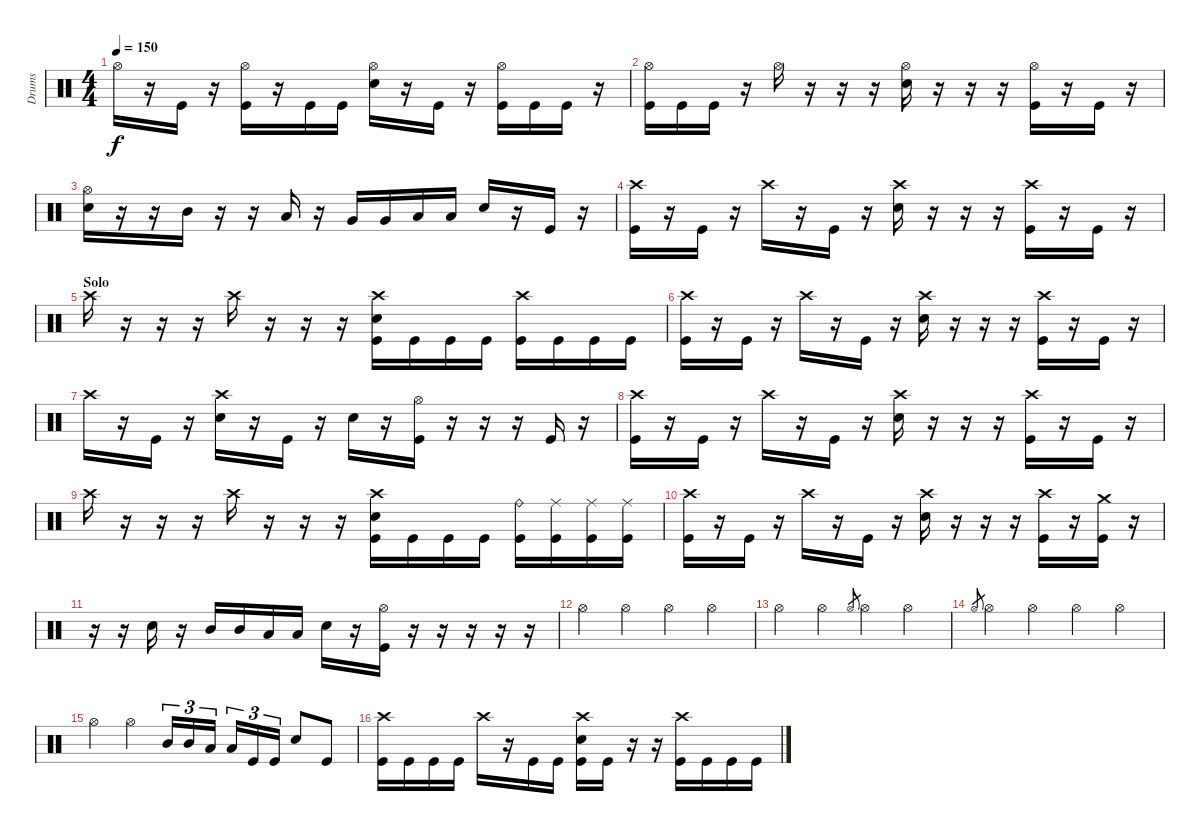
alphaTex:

\track ("Drums" "Drums") {instrument percussion}
\staff {score}
\articulation defaults
\ts (4 4)
\tempo 150
\clef neutral
\ks c "Hi-Hat (open)".16{dy f}
r.16 "Kick (hit)".16 r.16 ("Hi-Hat (open)" "Kick (hit)").16 r.16 "Kick (hit)".16 "Kick (hit)".16 ("Hi-Hat (open)" "Electric Snare (hit)").16 r.16 "Kick (hit)".16 r.16 ("Hi-Hat (open)" "Kick (hit)").16 "Kick (hit)".16 "Kick (hit)".16 r.16 |
("Hi-Hat (open)" "Kick (hit)").16 "Kick (hit)".16 "Kick (hit)".16 r.16 "Hi-Hat (open)".16 r.16 r.16 r.16 ("Hi-Hat (open)" "Electric Snare (hit)").16 r.16 r.16 r.16 ("Hi-Hat (open)" "Kick (hit)").16 r.16 "Kick (hit)".16 r.16 |
("Hi-Hat (open)" "Electric Snare (hit)").16 r.16 r.16 "Mid Tom (hit)".16 r.16 r.16 "Low Tom (hit)".16 r.16 "Very Low Tom (hit)".16 "Very Low Tom (hit)".16 "Low Tom (hit)".16 "Low Tom (hit)".16 "Electric Snare (hit)".16 r.16 "Kick (hit)".16 r.16 |
("Crash high (hit)" "Kick (hit)").16 r.16 "Kick (hit)".16 r.16 "Crash high (hit)".16 r.16 "Kick (hit)".16 r.16 ("Crash high (hit)" "Electric Snare (hit)").16 r.16 r.16 r.16 ("Crash high (hit)" "Kick (hit)").16 r.16 "Kick (hit)".16 r.16 |
\section ("" "Solo")
"Crash high (hit)".16 r.16 r.16 r.16 "Crash high (hit)".16 r.16 r.16 r.16 ("Crash high (hit)" "Electric Snare (hit)" "Kick (hit)").16 "Kick (hit)".16 "Kick (hit)".16 "Kick (hit)".16 ("Crash high (hit)" "Kick (hit)").16 "Kick (hit)".16 "Kick (hit)".16 "Kick (hit)".16 |
("Crash high (hit)" "Kick (hit)").16 r.16 "Kick (hit)".16 r.16 "Crash high (hit)".16 r.16 "Kick (hit)".16 r.16 ("Crash high (hit)" "Electric Snare (hit)").16 r.16 r.16 r.16 ("Crash high (hit)" "Kick (hit)").16 r.16 "Kick (hit)".16 r.16 |
"Crash high (hit)".16 r.16 "Kick (hit)".16 r.16 ("Crash high (hit)" "Electric Snare (hit)").16 r.16 "Kick (hit)".16 r.16 "Electric Snare (hit)".16 r.16 ("Hi-Hat (open)" "Kick (hit)").16 r.16 r.16 r.16 "Kick (hit)".16 r.16 |
("Crash high (hit)" "Kick (hit)").16 r.16 "Kick (hit)".16 r.16 "Crash high (hit)".16 r.16 "Kick (hit)".16 r.16 ("Crash high (hit)" "Electric Snare (hit)").16 r.16 r.16 r.16 ("Crash high (hit)" "Kick (hit)").16 r.16 "Kick (hit)".16 r.16 |
"Crash high (hit)".16 r.16 r.16 r.16 "Crash high (hit)".16 r.16 r.16 r.16 ("Crash high (hit)" "Electric Snare (hit)" "Kick (hit)").16 "Kick (hit)".16 "Kick (hit)".16 "Kick (hit)".16 ("Ride (bell)" "Kick (hit)").16 ("Ride (middle)" "Kick (hit)").16 ("Ride (middle)" "Kick (hit)").16 ("Ride (middle)" "Kick (hit)").16 |
("Crash high (hit)" "Kick (hit)").16 r.16 "Kick (hit)".16 r.16 "Crash high (hit)".16 r.16 "Kick (hit)".16 r.16 ("Crash high (hit)" "Electric Snare (hit)").16 r.16 r.16 r.16 ("Crash high (hit)" "Kick (hit)").16 r.16 ("Crash medium (hit)" "Kick (hit)").16 r.16 |
r.16 r.16 "Electric Snare (hit)".16 r.16 "Mid Tom (hit)".16 "Mid Tom (hit)".16 "Low Tom (hit)".16 "Low Tom (hit)".16 "Electric Snare (hit)".16 r.16 ("Hi-Hat (open)" "Kick (hit)").16 r.16 r.16 r.16 r.16 r.16 |
"Hi-Hat (open)".4 "Hi-Hat (open)".4 "Hi-Hat (open)".4 "Hi-Hat (open)".4 |
"Hi-Hat (open)".4 "Hi-Hat (open)".4 "Hi-Hat (open)".8{gr} "Hi-Hat (open)".4 "Hi-Hat (open)".4 |
"Hi-Hat (open)".8{gr} "Hi-Hat (open)".4 "Hi-Hat (open)".4 "Hi-Hat (open)".4 "Hi-Hat (open)".4 |
"Hi-Hat (open)".4 "Hi-Hat (open)".4 "Mid Tom (hit)".16{tu (3 2)} "Mid Tom (hit)".16{tu (3 2)} "Low Tom (hit)".16{tu (3 2)} "Low Tom (hit)".16{tu (3 2)} "Kick (hit)".16{tu (3 2)} "Kick (hit)".16{tu (3 2)} "Electric Snare (hit)".8 "Kick (hit)".8 |
("Crash high (hit)" "Kick (hit)").16 "Kick (hit)".16 "Kick (hit)".16 "Kick (hit)".16 "Crash high (hit)".16 r.16 "Kick (hit)".16 "Kick (hit)".16 ("Crash high (hit)" "Electric Snare (hit)" "Kick (hit)").16 "Kick (hit)".16 r.16 r.16 ("Crash high (hit)" "Kick (hit)").16 "Kick (hit)".16 "Kick (hit)".16 "Kick (hit)".16
